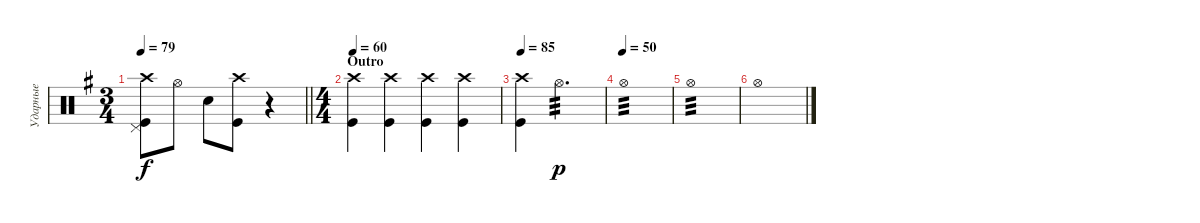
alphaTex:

\track ("Ударные" "Ударные") {instrument percussion}
\staff {score}
\articulation defaults
\ts (3 4)
\tempo 79
\clef neutral
\barLineRight lightlight
\ks eminor
("Kick (hit)" "Pedal Hi-Hat (hit)" "Crash high (hit)").8{dy f} "Hi-Hat (open)".8 "Snare (hit) 2".8 ("Kick (hit)" "Crash high (hit)").8 r.4 |
\ts (4 4)
\section ("" "Outro")
\tempo 60
("Kick (hit)" "Crash high (hit)").4 ("Kick (hit)" "Crash high (hit)").4 ("Kick (hit)" "Crash high (hit)").4 ("Kick (hit)" "Crash high (hit)").4 |
\tempo 85
("Kick (hit)" "Crash high (hit)").4 "Hi-Hat (open)".2{d tp 3 dy p} |
\tempo (50)
"Hi-Hat (open)".1{tp 3} |
"Hi-Hat (open)".1{tp 3} |
"Hi-Hat (open)".1
